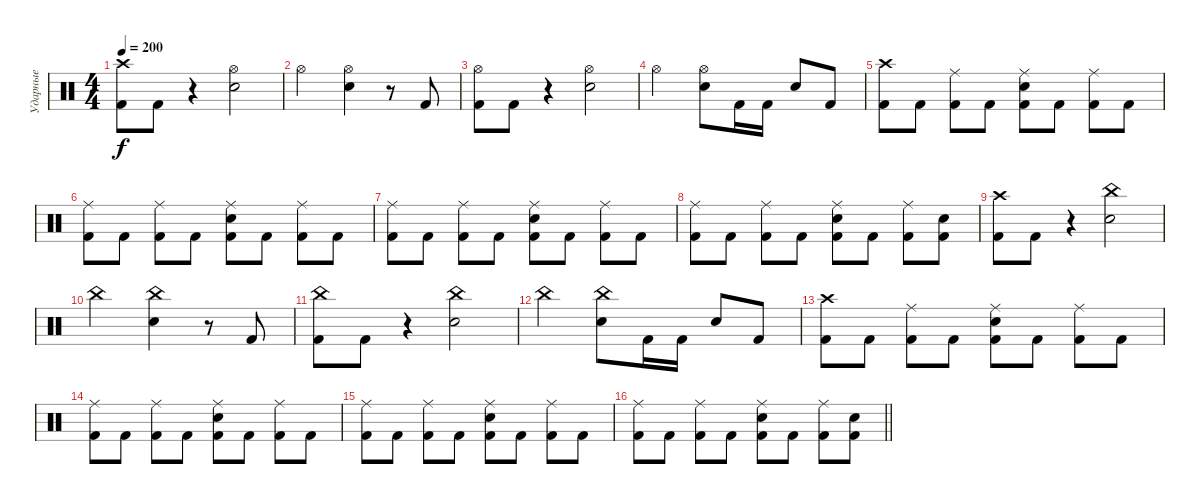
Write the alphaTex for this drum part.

\track ("Ударные" "Ударные") {instrument percussion}
\staff {score}
\articulation defaults
\ts (4 4)
\tempo 200
\clef neutral
\ks c
("Crash high (hit)" "Kick (hit) 2").8{dy f} "Kick (hit) 2".8 r.4 ("Hi-Hat (open)" "Snare (hit) 2").2 |
"Hi-Hat (open)".2 ("Hi-Hat (open)" "Snare (hit) 2").4 r.8 "Kick (hit) 2".8 |
("Hi-Hat (open)" "Kick (hit) 2").8 "Kick (hit) 2".8 r.4 ("Hi-Hat (open)" "Snare (hit) 2").2 |
"Hi-Hat (open)".2 ("Hi-Hat (open)" "Snare (hit) 2").8 "Kick (hit) 2".16 "Kick (hit) 2".16 "Snare (hit) 2".8 "Kick (hit) 2".8 |
("Crash high (hit)" "Kick (hit) 2").8 "Kick (hit) 2".8 ("Ride (middle)" "Kick (hit) 2").8 "Kick (hit) 2".8 ("Ride (middle)" "Snare (hit) 2" "Kick (hit) 2").8 "Kick (hit) 2".8 ("Ride (middle)" "Kick (hit) 2").8 "Kick (hit) 2".8 |
("Ride (middle)" "Kick (hit) 2").8 "Kick (hit) 2".8 ("Ride (middle)" "Kick (hit) 2").8 "Kick (hit) 2".8 ("Ride (middle)" "Snare (hit) 2" "Kick (hit) 2").8 "Kick (hit) 2".8 ("Ride (middle)" "Kick (hit) 2").8 "Kick (hit) 2".8 |
("Ride (middle)" "Kick (hit) 2").8 "Kick (hit) 2".8 ("Ride (middle)" "Kick (hit) 2").8 "Kick (hit) 2".8 ("Ride (middle)" "Snare (hit) 2" "Kick (hit) 2").8 "Kick (hit) 2".8 ("Ride (middle)" "Kick (hit) 2").8 "Kick (hit) 2".8 |
("Ride (middle)" "Kick (hit) 2").8 "Kick (hit) 2".8 ("Ride (middle)" "Kick (hit) 2").8 "Kick (hit) 2".8 ("Ride (middle)" "Snare (hit) 2" "Kick (hit) 2").8 "Kick (hit) 2".8 ("Ride (middle)" "Kick (hit) 2").8 ("Snare (hit) 2" "Kick (hit) 2").8 |
("Crash high (hit)" "Kick (hit) 2").8 "Kick (hit) 2".8 r.4 ("China (hit)" "Snare (hit) 2").2 |
"China (hit)".2 ("China (hit)" "Snare (hit) 2").4 r.8 "Kick (hit) 2".8 |
("China (hit)" "Kick (hit) 2").8 "Kick (hit) 2".8 r.4 ("China (hit)" "Snare (hit) 2").2 |
"China (hit)".2 ("China (hit)" "Snare (hit) 2").8 "Kick (hit) 2".16 "Kick (hit) 2".16 "Snare (hit) 2".8 "Kick (hit) 2".8 |
("Crash high (hit)" "Kick (hit) 2").8 "Kick (hit) 2".8 ("Ride (middle)" "Kick (hit) 2").8 "Kick (hit) 2".8 ("Ride (middle)" "Snare (hit) 2" "Kick (hit) 2").8 "Kick (hit) 2".8 ("Ride (middle)" "Kick (hit) 2").8 "Kick (hit) 2".8 |
("Ride (middle)" "Kick (hit) 2").8 "Kick (hit) 2".8 ("Ride (middle)" "Kick (hit) 2").8 "Kick (hit) 2".8 ("Ride (middle)" "Snare (hit) 2" "Kick (hit) 2").8 "Kick (hit) 2".8 ("Ride (middle)" "Kick (hit) 2").8 "Kick (hit) 2".8 |
("Ride (middle)" "Kick (hit) 2").8 "Kick (hit) 2".8 ("Ride (middle)" "Kick (hit) 2").8 "Kick (hit) 2".8 ("Ride (middle)" "Snare (hit) 2" "Kick (hit) 2").8 "Kick (hit) 2".8 ("Ride (middle)" "Kick (hit) 2").8 "Kick (hit) 2".8 |
\barLineRight lightlight
("Ride (middle)" "Kick (hit) 2").8 "Kick (hit) 2".8 ("Ride (middle)" "Kick (hit) 2").8 "Kick (hit) 2".8 ("Ride (middle)" "Snare (hit) 2" "Kick (hit) 2").8 "Kick (hit) 2".8 ("Ride (middle)" "Kick (hit) 2").8 ("Snare (hit) 2" "Kick (hit) 2").8
